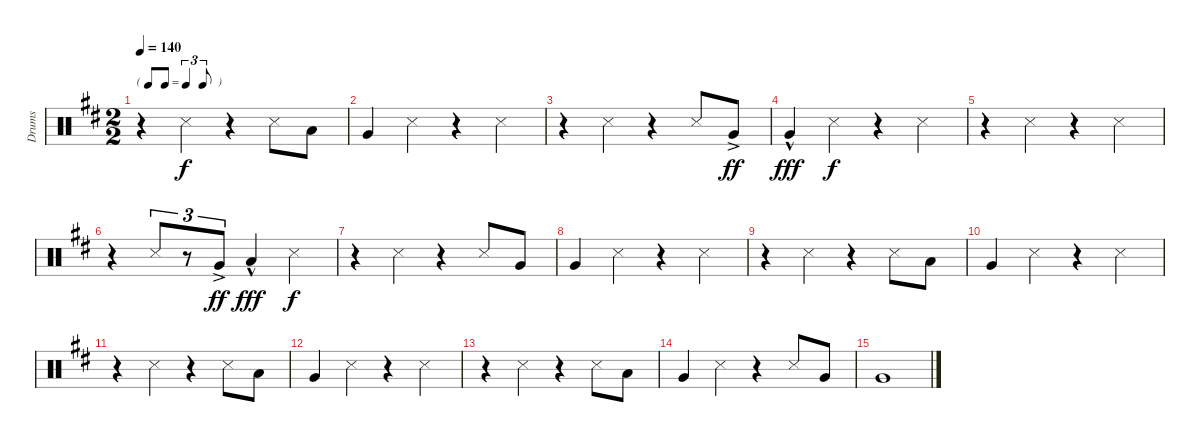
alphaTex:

\track ("Drums" "Drums") {instrument percussion}
\staff {score}
\articulation defaults
\ts (2 2)
\tf triplet8th
\tempo 140
\clef neutral
\ks bminor
r.4{dy f} "Metronome (hit)".4 r.4 "Metronome (hit)".8 "Low Tom (hit)".8 |
"Very Low Tom (hit)".4 "Metronome (hit)".4 r.4 "Metronome (hit)".4 |
r.4 "Metronome (hit)".4 r.4 "Metronome (hit)".8 "Very Low Tom (hit)"{ac}.8{dy ff} |
"Very Low Tom (hit)"{hac}.4{dy fff} "Metronome (hit)".4{dy f} r.4 "Metronome (hit)".4 |
r.4 "Metronome (hit)".4 r.4 "Metronome (hit)".4 |
r.4 "Metronome (hit)".8{tu (3 2)} r.8{tu (3 2)} "Very Low Tom (hit)"{ac}.8{tu (3 2) dy ff} "Low Floor Tom (hit)"{hac}.4{dy fff} "Metronome (hit)".4{dy f} |
r.4 "Metronome (hit)".4 r.4 "Metronome (hit)".8 "Very Low Tom (hit)".8 |
"Very Low Tom (hit)".4 "Metronome (hit)".4 r.4 "Metronome (hit)".4 |
r.4 "Metronome (hit)".4 r.4 "Metronome (hit)".8 "Low Floor Tom (hit)".8 |
"Very Low Tom (hit)".4 "Metronome (hit)".4 r.4 "Metronome (hit)".4 |
r.4 "Metronome (hit)".4 r.4 "Metronome (hit)".8 "Low Floor Tom (hit)".8 |
"Very Low Tom (hit)".4 "Metronome (hit)".4 r.4 "Metronome (hit)".4 |
r.4 "Metronome (hit)".4 r.4 "Metronome (hit)".8 "Low Floor Tom (hit)".8 |
"Very Low Tom (hit)".4 "Metronome (hit)".4 r.4 "Metronome (hit)".8 "Very Low Tom (hit)".8 |
"Very Low Tom (hit)".1
